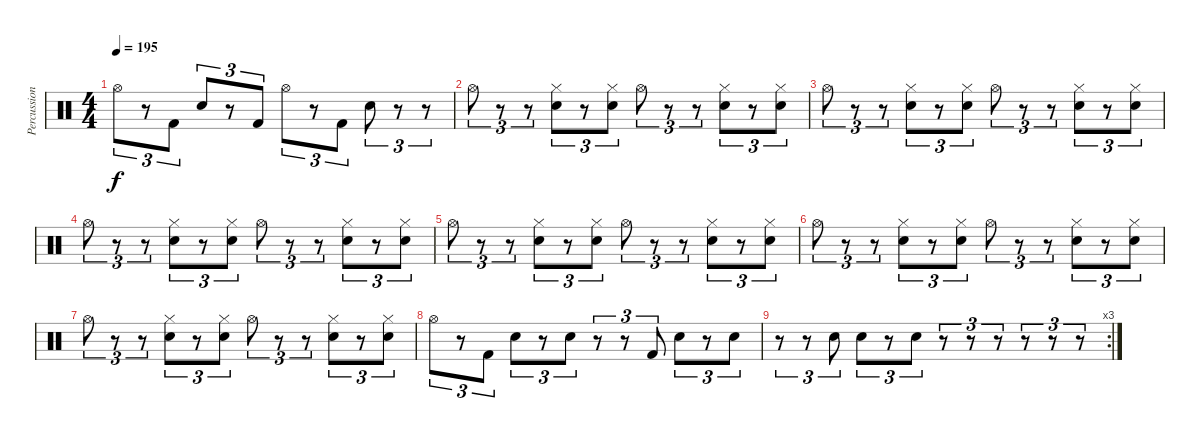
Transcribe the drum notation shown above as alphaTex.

\track ("Percussion" "Percussion") {instrument percussion}
\staff {score}
\articulation defaults
\ts (4 4)
\tempo 195
\clef neutral
\ks c "Hi-Hat (open)".8{tu (3 2) dy f}
r.8{tu (3 2)} "Kick (hit) 2".8{tu (3 2)} "Snare (hit) 2".8{tu (3 2)} r.8{tu (3 2)} "Kick (hit) 2".8{tu (3 2)} "Hi-Hat (open)".8{tu (3 2)} r.8{tu (3 2)} "Kick (hit) 2".8{tu (3 2)} "Snare (hit) 2".8{tu (3 2)} r.8{tu (3 2)} r.8{tu (3 2)} |
"Hi-Hat (open)".8{tu (3 2)} r.8{tu (3 2)} r.8{tu (3 2)} ("Hi-Hat (closed)" "Snare (hit) 2").8{tu (3 2)} r.8{tu (3 2)} ("Hi-Hat (closed)" "Snare (hit) 2").8{tu (3 2)} "Hi-Hat (open)".8{tu (3 2)} r.8{tu (3 2)} r.8{tu (3 2)} ("Hi-Hat (closed)" "Snare (hit) 2").8{tu (3 2)} r.8{tu (3 2)} ("Hi-Hat (closed)" "Snare (hit) 2").8{tu (3 2)} |
"Hi-Hat (open)".8{tu (3 2)} r.8{tu (3 2)} r.8{tu (3 2)} ("Hi-Hat (closed)" "Snare (hit) 2").8{tu (3 2)} r.8{tu (3 2)} ("Hi-Hat (closed)" "Snare (hit) 2").8{tu (3 2)} "Hi-Hat (open)".8{tu (3 2)} r.8{tu (3 2)} r.8{tu (3 2)} ("Hi-Hat (closed)" "Snare (hit) 2").8{tu (3 2)} r.8{tu (3 2)} ("Hi-Hat (closed)" "Snare (hit) 2").8{tu (3 2)} |
"Hi-Hat (open)".8{tu (3 2)} r.8{tu (3 2)} r.8{tu (3 2)} ("Hi-Hat (closed)" "Snare (hit) 2").8{tu (3 2)} r.8{tu (3 2)} ("Hi-Hat (closed)" "Snare (hit) 2").8{tu (3 2)} "Hi-Hat (open)".8{tu (3 2)} r.8{tu (3 2)} r.8{tu (3 2)} ("Hi-Hat (closed)" "Snare (hit) 2").8{tu (3 2)} r.8{tu (3 2)} ("Hi-Hat (closed)" "Snare (hit) 2").8{tu (3 2)} |
"Hi-Hat (open)".8{tu (3 2)} r.8{tu (3 2)} r.8{tu (3 2)} ("Hi-Hat (closed)" "Snare (hit) 2").8{tu (3 2)} r.8{tu (3 2)} ("Hi-Hat (closed)" "Snare (hit) 2").8{tu (3 2)} "Hi-Hat (open)".8{tu (3 2)} r.8{tu (3 2)} r.8{tu (3 2)} ("Hi-Hat (closed)" "Snare (hit) 2").8{tu (3 2)} r.8{tu (3 2)} ("Hi-Hat (closed)" "Snare (hit) 2").8{tu (3 2)} |
"Hi-Hat (open)".8{tu (3 2)} r.8{tu (3 2)} r.8{tu (3 2)} ("Hi-Hat (closed)" "Snare (hit) 2").8{tu (3 2)} r.8{tu (3 2)} ("Hi-Hat (closed)" "Snare (hit) 2").8{tu (3 2)} "Hi-Hat (open)".8{tu (3 2)} r.8{tu (3 2)} r.8{tu (3 2)} ("Hi-Hat (closed)" "Snare (hit) 2").8{tu (3 2)} r.8{tu (3 2)} ("Hi-Hat (closed)" "Snare (hit) 2").8{tu (3 2)} |
"Hi-Hat (open)".8{tu (3 2)} r.8{tu (3 2)} r.8{tu (3 2)} ("Hi-Hat (closed)" "Snare (hit) 2").8{tu (3 2)} r.8{tu (3 2)} ("Hi-Hat (closed)" "Snare (hit) 2").8{tu (3 2)} "Hi-Hat (open)".8{tu (3 2)} r.8{tu (3 2)} r.8{tu (3 2)} ("Hi-Hat (closed)" "Snare (hit) 2").8{tu (3 2)} r.8{tu (3 2)} ("Hi-Hat (closed)" "Snare (hit) 2").8{tu (3 2)} |
"Hi-Hat (open)".8{tu (3 2)} r.8{tu (3 2)} "Kick (hit) 2".8{tu (3 2)} "Snare (hit) 2".8{tu (3 2)} r.8{tu (3 2)} "Snare (hit) 2".8{tu (3 2)} r.8{tu (3 2)} r.8{tu (3 2)} "Kick (hit) 2".8{tu (3 2)} "Snare (hit) 2".8{tu (3 2)} r.8{tu (3 2)} "Snare (hit) 2".8{tu (3 2)} |
\rc 3
r.8{tu (3 2)} r.8{tu (3 2)} "Snare (hit) 2".8{tu (3 2)} "Snare (hit) 2".8{tu (3 2)} r.8{tu (3 2)} "Snare (hit) 2".8{tu (3 2)} r.8{tu (3 2)} r.8{tu (3 2)} r.8{tu (3 2)} r.8{tu (3 2)} r.8{tu (3 2)} r.8{tu (3 2)}
